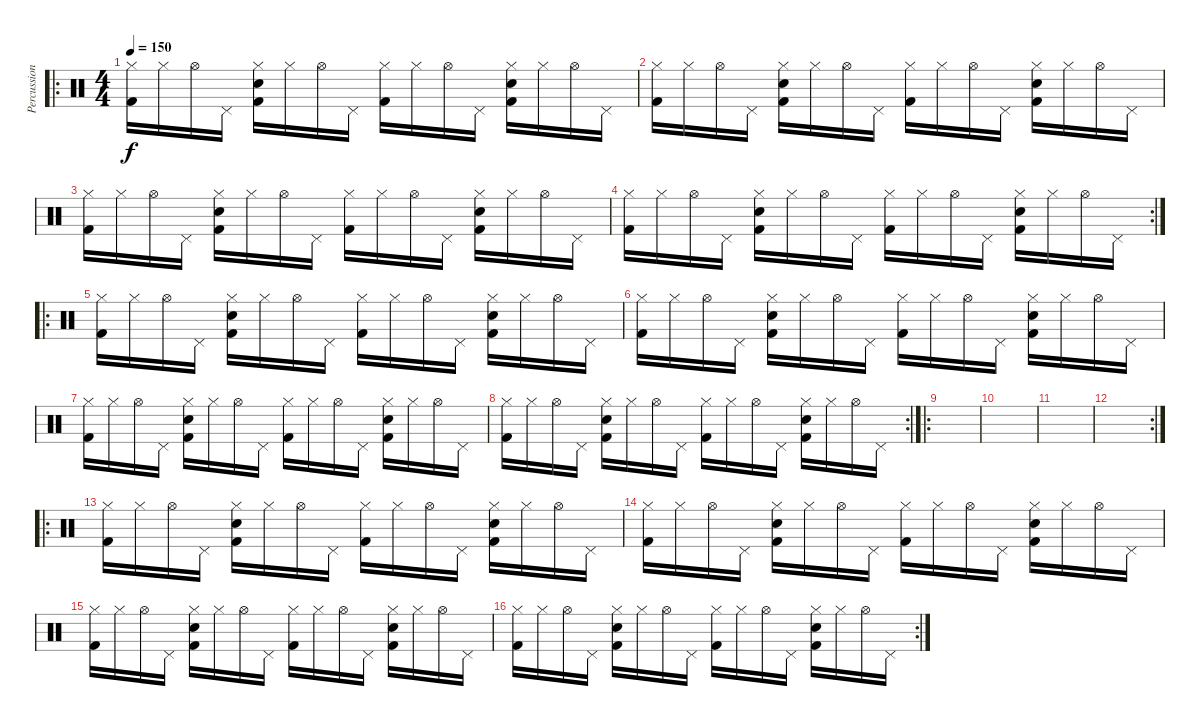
\track ("Percussion" "Percussion") {instrument percussion}
\staff {score}
\articulation defaults
\ro
\ts (4 4)
\tempo 150
\clef neutral
\ks c
("Hi-Hat (closed)" "Kick (hit) 2").16{dy f} "Hi-Hat (closed)".16 "Hi-Hat (open)".16 "Pedal Hi-Hat (hit)".16 ("Hi-Hat (closed)" "Snare (hit) 2" "Kick (hit) 2").16 "Hi-Hat (closed)".16 "Hi-Hat (open)".16 "Pedal Hi-Hat (hit)".16 ("Hi-Hat (closed)" "Kick (hit) 2").16 "Hi-Hat (closed)".16 "Hi-Hat (open)".16 "Pedal Hi-Hat (hit)".16 ("Hi-Hat (closed)" "Snare (hit) 2" "Kick (hit) 2").16 "Hi-Hat (closed)".16 "Hi-Hat (open)".16 "Pedal Hi-Hat (hit)".16 |
("Hi-Hat (closed)" "Kick (hit) 2").16 "Hi-Hat (closed)".16 "Hi-Hat (open)".16 "Pedal Hi-Hat (hit)".16 ("Hi-Hat (closed)" "Snare (hit) 2" "Kick (hit) 2").16 "Hi-Hat (closed)".16 "Hi-Hat (open)".16 "Pedal Hi-Hat (hit)".16 ("Hi-Hat (closed)" "Kick (hit) 2").16 "Hi-Hat (closed)".16 "Hi-Hat (open)".16 "Pedal Hi-Hat (hit)".16 ("Hi-Hat (closed)" "Snare (hit) 2" "Kick (hit) 2").16 "Hi-Hat (closed)".16 "Hi-Hat (open)".16 "Pedal Hi-Hat (hit)".16 |
("Hi-Hat (closed)" "Kick (hit) 2").16 "Hi-Hat (closed)".16 "Hi-Hat (open)".16 "Pedal Hi-Hat (hit)".16 ("Hi-Hat (closed)" "Snare (hit) 2" "Kick (hit) 2").16 "Hi-Hat (closed)".16 "Hi-Hat (open)".16 "Pedal Hi-Hat (hit)".16 ("Hi-Hat (closed)" "Kick (hit) 2").16 "Hi-Hat (closed)".16 "Hi-Hat (open)".16 "Pedal Hi-Hat (hit)".16 ("Hi-Hat (closed)" "Snare (hit) 2" "Kick (hit) 2").16 "Hi-Hat (closed)".16 "Hi-Hat (open)".16 "Pedal Hi-Hat (hit)".16 |
\rc 2
("Hi-Hat (closed)" "Kick (hit) 2").16 "Hi-Hat (closed)".16 "Hi-Hat (open)".16 "Pedal Hi-Hat (hit)".16 ("Hi-Hat (closed)" "Snare (hit) 2" "Kick (hit) 2").16 "Hi-Hat (closed)".16 "Hi-Hat (open)".16 "Pedal Hi-Hat (hit)".16 ("Hi-Hat (closed)" "Kick (hit) 2").16 "Hi-Hat (closed)".16 "Hi-Hat (open)".16 "Pedal Hi-Hat (hit)".16 ("Hi-Hat (closed)" "Snare (hit) 2" "Kick (hit) 2").16 "Hi-Hat (closed)".16 "Hi-Hat (open)".16 "Pedal Hi-Hat (hit)".16 |
\ro
("Hi-Hat (closed)" "Kick (hit) 2").16 "Hi-Hat (closed)".16 "Hi-Hat (open)".16 "Pedal Hi-Hat (hit)".16 ("Hi-Hat (closed)" "Snare (hit) 2" "Kick (hit) 2").16 "Hi-Hat (closed)".16 "Hi-Hat (open)".16 "Pedal Hi-Hat (hit)".16 ("Hi-Hat (closed)" "Kick (hit) 2").16 "Hi-Hat (closed)".16 "Hi-Hat (open)".16 "Pedal Hi-Hat (hit)".16 ("Hi-Hat (closed)" "Snare (hit) 2" "Kick (hit) 2").16 "Hi-Hat (closed)".16 "Hi-Hat (open)".16 "Pedal Hi-Hat (hit)".16 |
("Hi-Hat (closed)" "Kick (hit) 2").16 "Hi-Hat (closed)".16 "Hi-Hat (open)".16 "Pedal Hi-Hat (hit)".16 ("Hi-Hat (closed)" "Snare (hit) 2" "Kick (hit) 2").16 "Hi-Hat (closed)".16 "Hi-Hat (open)".16 "Pedal Hi-Hat (hit)".16 ("Hi-Hat (closed)" "Kick (hit) 2").16 "Hi-Hat (closed)".16 "Hi-Hat (open)".16 "Pedal Hi-Hat (hit)".16 ("Hi-Hat (closed)" "Snare (hit) 2" "Kick (hit) 2").16 "Hi-Hat (closed)".16 "Hi-Hat (open)".16 "Pedal Hi-Hat (hit)".16 |
("Hi-Hat (closed)" "Kick (hit) 2").16 "Hi-Hat (closed)".16 "Hi-Hat (open)".16 "Pedal Hi-Hat (hit)".16 ("Hi-Hat (closed)" "Snare (hit) 2" "Kick (hit) 2").16 "Hi-Hat (closed)".16 "Hi-Hat (open)".16 "Pedal Hi-Hat (hit)".16 ("Hi-Hat (closed)" "Kick (hit) 2").16 "Hi-Hat (closed)".16 "Hi-Hat (open)".16 "Pedal Hi-Hat (hit)".16 ("Hi-Hat (closed)" "Snare (hit) 2" "Kick (hit) 2").16 "Hi-Hat (closed)".16 "Hi-Hat (open)".16 "Pedal Hi-Hat (hit)".16 |
\rc 2
("Hi-Hat (closed)" "Kick (hit) 2").16 "Hi-Hat (closed)".16 "Hi-Hat (open)".16 "Pedal Hi-Hat (hit)".16 ("Hi-Hat (closed)" "Snare (hit) 2" "Kick (hit) 2").16 "Hi-Hat (closed)".16 "Hi-Hat (open)".16 "Pedal Hi-Hat (hit)".16 ("Hi-Hat (closed)" "Kick (hit) 2").16 "Hi-Hat (closed)".16 "Hi-Hat (open)".16 "Pedal Hi-Hat (hit)".16 ("Hi-Hat (closed)" "Snare (hit) 2" "Kick (hit) 2").16 "Hi-Hat (closed)".16 "Hi-Hat (open)".16 "Pedal Hi-Hat (hit)".16 |
\ro
|
|
|
\rc 2
|
\ro
("Hi-Hat (closed)" "Kick (hit) 2").16 "Hi-Hat (closed)".16 "Hi-Hat (open)".16 "Pedal Hi-Hat (hit)".16 ("Hi-Hat (closed)" "Snare (hit) 2" "Kick (hit) 2").16 "Hi-Hat (closed)".16 "Hi-Hat (open)".16 "Pedal Hi-Hat (hit)".16 ("Hi-Hat (closed)" "Kick (hit) 2").16 "Hi-Hat (closed)".16 "Hi-Hat (open)".16 "Pedal Hi-Hat (hit)".16 ("Hi-Hat (closed)" "Snare (hit) 2" "Kick (hit) 2").16 "Hi-Hat (closed)".16 "Hi-Hat (open)".16 "Pedal Hi-Hat (hit)".16 |
("Hi-Hat (closed)" "Kick (hit) 2").16 "Hi-Hat (closed)".16 "Hi-Hat (open)".16 "Pedal Hi-Hat (hit)".16 ("Hi-Hat (closed)" "Snare (hit) 2" "Kick (hit) 2").16 "Hi-Hat (closed)".16 "Hi-Hat (open)".16 "Pedal Hi-Hat (hit)".16 ("Hi-Hat (closed)" "Kick (hit) 2").16 "Hi-Hat (closed)".16 "Hi-Hat (open)".16 "Pedal Hi-Hat (hit)".16 ("Hi-Hat (closed)" "Snare (hit) 2" "Kick (hit) 2").16 "Hi-Hat (closed)".16 "Hi-Hat (open)".16 "Pedal Hi-Hat (hit)".16 |
("Hi-Hat (closed)" "Kick (hit) 2").16 "Hi-Hat (closed)".16 "Hi-Hat (open)".16 "Pedal Hi-Hat (hit)".16 ("Hi-Hat (closed)" "Snare (hit) 2" "Kick (hit) 2").16 "Hi-Hat (closed)".16 "Hi-Hat (open)".16 "Pedal Hi-Hat (hit)".16 ("Hi-Hat (closed)" "Kick (hit) 2").16 "Hi-Hat (closed)".16 "Hi-Hat (open)".16 "Pedal Hi-Hat (hit)".16 ("Hi-Hat (closed)" "Snare (hit) 2" "Kick (hit) 2").16 "Hi-Hat (closed)".16 "Hi-Hat (open)".16 "Pedal Hi-Hat (hit)".16 |
\rc 2
("Hi-Hat (closed)" "Kick (hit) 2").16 "Hi-Hat (closed)".16 "Hi-Hat (open)".16 "Pedal Hi-Hat (hit)".16 ("Hi-Hat (closed)" "Snare (hit) 2" "Kick (hit) 2").16 "Hi-Hat (closed)".16 "Hi-Hat (open)".16 "Pedal Hi-Hat (hit)".16 ("Hi-Hat (closed)" "Kick (hit) 2").16 "Hi-Hat (closed)".16 "Hi-Hat (open)".16 "Pedal Hi-Hat (hit)".16 ("Hi-Hat (closed)" "Snare (hit) 2" "Kick (hit) 2").16 "Hi-Hat (closed)".16 "Hi-Hat (open)".16 "Pedal Hi-Hat (hit)".16
